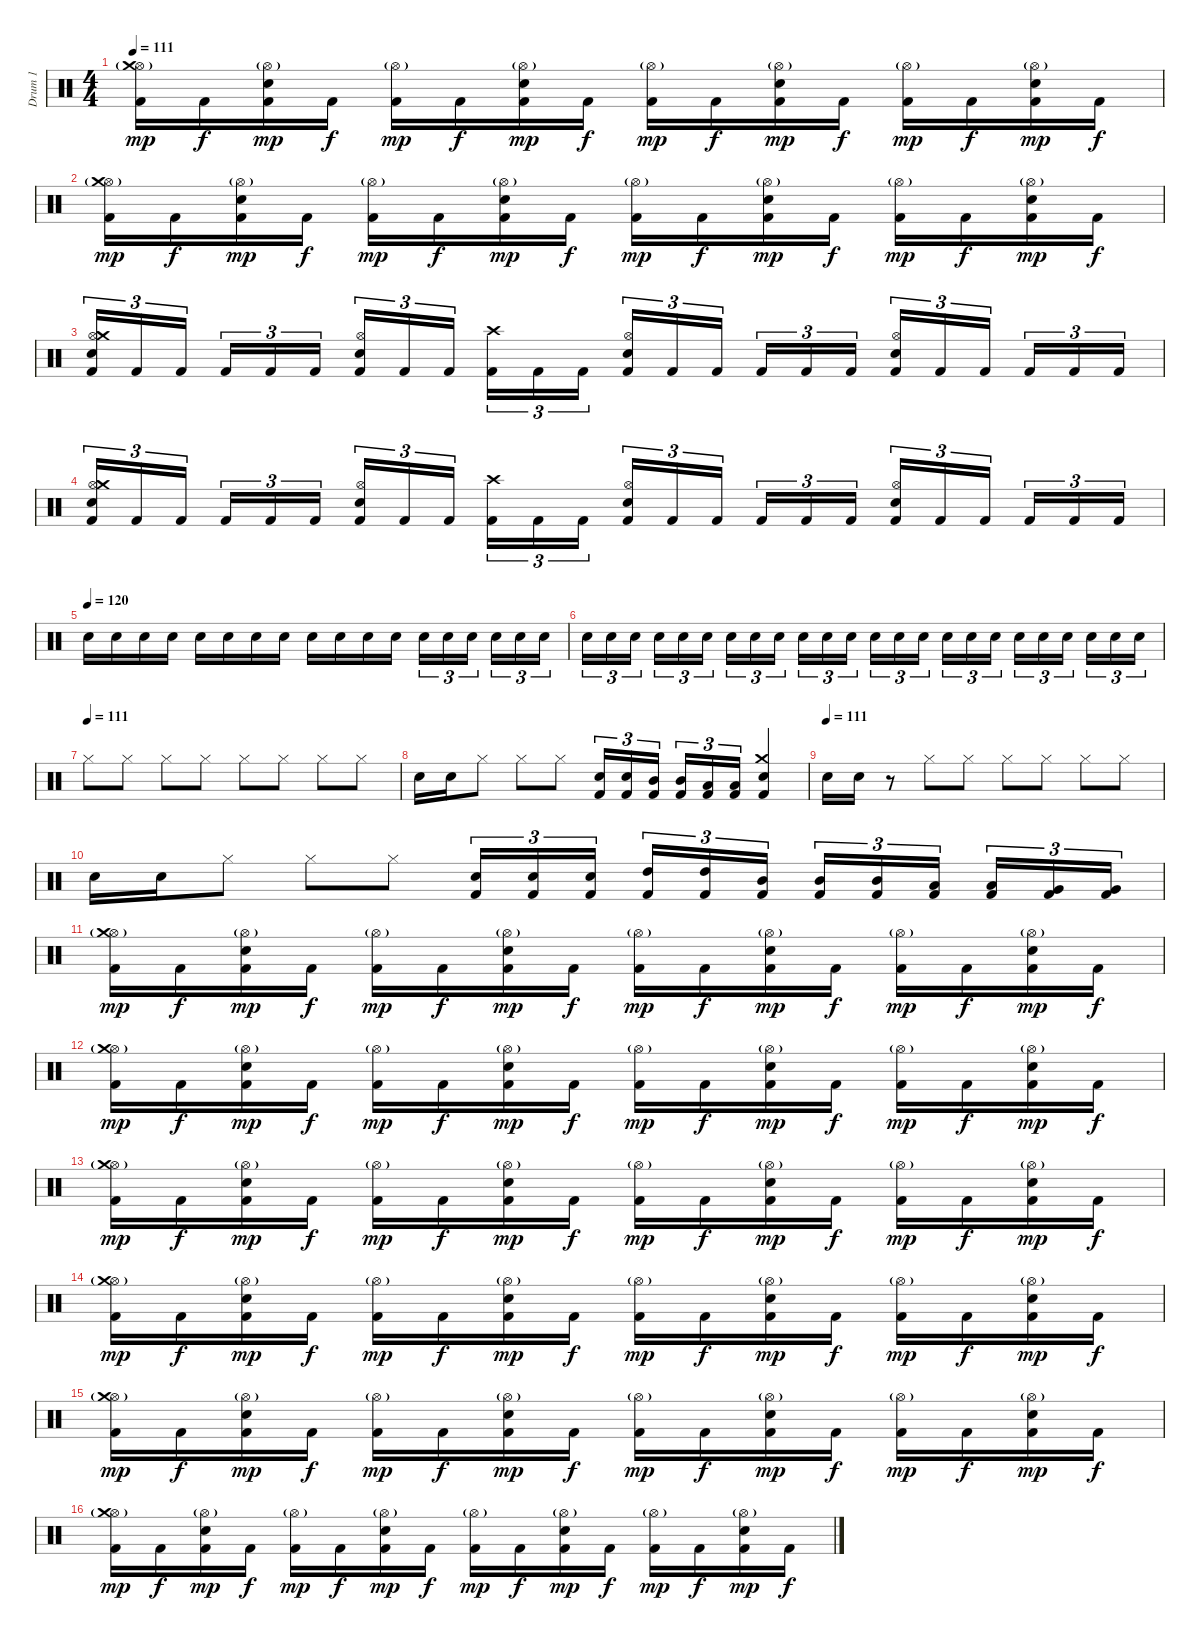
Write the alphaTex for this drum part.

\track ("Drum 1" "Drum 1") {instrument percussion}
\staff {score}
\articulation defaults
\ts (4 4)
\tempo 111
\clef neutral
\ks c
("Kick (hit) 2" "Hi-Hat (open)"{g} "Crash medium (hit)").16{dy mp} "Kick (hit) 2".16{dy f} ("Kick (hit) 2" "Hi-Hat (open)"{g} "Electric Snare (hit)").16{dy mp} "Kick (hit) 2".16{dy f} ("Kick (hit) 2" "Hi-Hat (open)"{g}).16{dy mp} "Kick (hit) 2".16{dy f} ("Kick (hit) 2" "Hi-Hat (open)"{g} "Electric Snare (hit)").16{dy mp} "Kick (hit) 2".16{dy f} ("Kick (hit) 2" "Hi-Hat (open)"{g}).16{dy mp} "Kick (hit) 2".16{dy f} ("Kick (hit) 2" "Hi-Hat (open)"{g} "Electric Snare (hit)").16{dy mp} "Kick (hit) 2".16{dy f} ("Kick (hit) 2" "Hi-Hat (open)"{g}).16{dy mp} "Kick (hit) 2".16{dy f} ("Kick (hit) 2" "Hi-Hat (open)"{g} "Electric Snare (hit)").16{dy mp} "Kick (hit) 2".16{dy f} |
("Kick (hit) 2" "Hi-Hat (open)"{g} "Crash medium (hit)").16{dy mp} "Kick (hit) 2".16{dy f} ("Kick (hit) 2" "Hi-Hat (open)"{g} "Electric Snare (hit)").16{dy mp} "Kick (hit) 2".16{dy f} ("Kick (hit) 2" "Hi-Hat (open)"{g}).16{dy mp} "Kick (hit) 2".16{dy f} ("Kick (hit) 2" "Hi-Hat (open)"{g} "Electric Snare (hit)").16{dy mp} "Kick (hit) 2".16{dy f} ("Kick (hit) 2" "Hi-Hat (open)"{g}).16{dy mp} "Kick (hit) 2".16{dy f} ("Kick (hit) 2" "Hi-Hat (open)"{g} "Electric Snare (hit)").16{dy mp} "Kick (hit) 2".16{dy f} ("Kick (hit) 2" "Hi-Hat (open)"{g}).16{dy mp} "Kick (hit) 2".16{dy f} ("Kick (hit) 2" "Hi-Hat (open)"{g} "Electric Snare (hit)").16{dy mp} "Kick (hit) 2".16{dy f} |
("Kick (hit) 2" "Hi-Hat (open)" "Crash medium (hit)" "Electric Snare (hit)").16{tu (3 2)} "Kick (hit) 2".16{tu (3 2)} "Kick (hit) 2".16{tu (3 2)} "Kick (hit) 2".16{tu (3 2)} "Kick (hit) 2".16{tu (3 2)} "Kick (hit) 2".16{tu (3 2)} ("Kick (hit) 2" "Hi-Hat (open)" "Electric Snare (hit)").16{tu (3 2)} "Kick (hit) 2".16{tu (3 2)} "Kick (hit) 2".16{tu (3 2)} ("Kick (hit) 2" "Crash high (hit)").16{tu (3 2)} "Kick (hit) 2".16{tu (3 2)} "Kick (hit) 2".16{tu (3 2)} ("Kick (hit) 2" "Hi-Hat (open)" "Electric Snare (hit)").16{tu (3 2)} "Kick (hit) 2".16{tu (3 2)} "Kick (hit) 2".16{tu (3 2)} "Kick (hit) 2".16{tu (3 2)} "Kick (hit) 2".16{tu (3 2)} "Kick (hit) 2".16{tu (3 2)} ("Kick (hit) 2" "Hi-Hat (open)" "Electric Snare (hit)").16{tu (3 2)} "Kick (hit) 2".16{tu (3 2)} "Kick (hit) 2".16{tu (3 2)} "Kick (hit) 2".16{tu (3 2)} "Kick (hit) 2".16{tu (3 2)} "Kick (hit) 2".16{tu (3 2)} |
("Kick (hit) 2" "Hi-Hat (open)" "Crash medium (hit)" "Electric Snare (hit)").16{tu (3 2)} "Kick (hit) 2".16{tu (3 2)} "Kick (hit) 2".16{tu (3 2)} "Kick (hit) 2".16{tu (3 2)} "Kick (hit) 2".16{tu (3 2)} "Kick (hit) 2".16{tu (3 2)} ("Kick (hit) 2" "Hi-Hat (open)" "Electric Snare (hit)").16{tu (3 2)} "Kick (hit) 2".16{tu (3 2)} "Kick (hit) 2".16{tu (3 2)} ("Kick (hit) 2" "Crash high (hit)").16{tu (3 2)} "Kick (hit) 2".16{tu (3 2)} "Kick (hit) 2".16{tu (3 2)} ("Kick (hit) 2" "Hi-Hat (open)" "Electric Snare (hit)").16{tu (3 2)} "Kick (hit) 2".16{tu (3 2)} "Kick (hit) 2".16{tu (3 2)} "Kick (hit) 2".16{tu (3 2)} "Kick (hit) 2".16{tu (3 2)} "Kick (hit) 2".16{tu (3 2)} ("Kick (hit) 2" "Hi-Hat (open)" "Electric Snare (hit)").16{tu (3 2)} "Kick (hit) 2".16{tu (3 2)} "Kick (hit) 2".16{tu (3 2)} "Kick (hit) 2".16{tu (3 2)} "Kick (hit) 2".16{tu (3 2)} "Kick (hit) 2".16{tu (3 2)} |
\tempo 125
\tempo (120)
"Electric Snare (hit)".16 "Electric Snare (hit)".16 "Electric Snare (hit)".16 "Electric Snare (hit)".16 "Electric Snare (hit)".16 "Electric Snare (hit)".16 "Electric Snare (hit)".16 "Electric Snare (hit)".16 "Electric Snare (hit)".16 "Electric Snare (hit)".16 "Electric Snare (hit)".16 "Electric Snare (hit)".16 "Electric Snare (hit)".16{tu (3 2)} "Electric Snare (hit)".16{tu (3 2)} "Electric Snare (hit)".16{tu (3 2)} "Electric Snare (hit)".16{tu (3 2)} "Electric Snare (hit)".16{tu (3 2)} "Electric Snare (hit)".16{tu (3 2)} |
"Electric Snare (hit)".16{tu (3 2)} "Electric Snare (hit)".16{tu (3 2)} "Electric Snare (hit)".16{tu (3 2)} "Electric Snare (hit)".16{tu (3 2)} "Electric Snare (hit)".16{tu (3 2)} "Electric Snare (hit)".16{tu (3 2)} "Electric Snare (hit)".16{tu (3 2)} "Electric Snare (hit)".16{tu (3 2)} "Electric Snare (hit)".16{tu (3 2)} "Electric Snare (hit)".16{tu (3 2)} "Electric Snare (hit)".16{tu (3 2)} "Electric Snare (hit)".16{tu (3 2)} "Electric Snare (hit)".16{tu (3 2)} "Electric Snare (hit)".16{tu (3 2)} "Electric Snare (hit)".16{tu (3 2)} "Electric Snare (hit)".16{tu (3 2)} "Electric Snare (hit)".16{tu (3 2)} "Electric Snare (hit)".16{tu (3 2)} "Electric Snare (hit)".16{tu (3 2)} "Electric Snare (hit)".16{tu (3 2)} "Electric Snare (hit)".16{tu (3 2)} "Electric Snare (hit)".16{tu (3 2)} "Electric Snare (hit)".16{tu (3 2)} "Electric Snare (hit)".16{tu (3 2)} |
\tempo (111)
"Hi-Hat (closed)".8 "Hi-Hat (closed)".8 "Hi-Hat (closed)".8 "Hi-Hat (closed)".8 "Hi-Hat (closed)".8 "Hi-Hat (closed)".8 "Hi-Hat (closed)".8 "Hi-Hat (closed)".8 |
"Electric Snare (hit)".16 "Electric Snare (hit)".16 "Hi-Hat (closed)".8 "Hi-Hat (closed)".8 "Hi-Hat (closed)".8 ("Kick (hit) 2" "Electric Snare (hit)").16{tu (3 2)} ("Kick (hit) 2" "Electric Snare (hit)").16{tu (3 2)} ("Kick (hit) 2" "Mid Tom (hit)").16{tu (3 2)} ("Kick (hit) 2" "Mid Tom (hit)").16{tu (3 2)} ("Kick (hit) 2" "Low Tom (hit)").16{tu (3 2)} ("Kick (hit) 2" "Low Tom (hit)").16{tu (3 2)} ("Kick (hit) 2" "Electric Snare (hit)" "Crash medium (hit)").4 |
\tempo (111)
"Electric Snare (hit)".16 "Electric Snare (hit)".16 r.8 "Hi-Hat (closed)".8 "Hi-Hat (closed)".8 "Hi-Hat (closed)".8 "Hi-Hat (closed)".8 "Hi-Hat (closed)".8 "Hi-Hat (closed)".8 |
"Electric Snare (hit)".16 "Electric Snare (hit)".16 "Hi-Hat (closed)".8 "Hi-Hat (closed)".8 "Hi-Hat (closed)".8 ("Kick (hit) 2" "Electric Snare (hit)").16{tu (3 2)} ("Kick (hit) 2" "Electric Snare (hit)").16{tu (3 2)} ("Kick (hit) 2" "Electric Snare (hit)").16{tu (3 2)} ("Kick (hit) 2" "High Tom (hit)").16{tu (3 2)} ("Kick (hit) 2" "High Tom (hit)").16{tu (3 2)} ("Kick (hit) 2" "Mid Tom (hit)").16{tu (3 2)} ("Kick (hit) 2" "Mid Tom (hit)").16{tu (3 2)} ("Kick (hit) 2" "Mid Tom (hit)").16{tu (3 2)} ("Kick (hit) 2" "Low Tom (hit)").16{tu (3 2)} ("Kick (hit) 2" "Low Tom (hit)").16{tu (3 2)} ("Kick (hit) 2" "Very Low Tom (hit)").16{tu (3 2)} ("Kick (hit) 2" "Very Low Tom (hit)").16{tu (3 2)} |
("Kick (hit) 2" "Hi-Hat (open)"{g} "Crash medium (hit)").16{dy mp} "Kick (hit) 2".16{dy f} ("Kick (hit) 2" "Hi-Hat (open)"{g} "Electric Snare (hit)").16{dy mp} "Kick (hit) 2".16{dy f} ("Kick (hit) 2" "Hi-Hat (open)"{g}).16{dy mp} "Kick (hit) 2".16{dy f} ("Kick (hit) 2" "Hi-Hat (open)"{g} "Electric Snare (hit)").16{dy mp} "Kick (hit) 2".16{dy f} ("Kick (hit) 2" "Hi-Hat (open)"{g}).16{dy mp} "Kick (hit) 2".16{dy f} ("Kick (hit) 2" "Hi-Hat (open)"{g} "Electric Snare (hit)").16{dy mp} "Kick (hit) 2".16{dy f} ("Kick (hit) 2" "Hi-Hat (open)"{g}).16{dy mp} "Kick (hit) 2".16{dy f} ("Kick (hit) 2" "Hi-Hat (open)"{g} "Electric Snare (hit)").16{dy mp} "Kick (hit) 2".16{dy f} |
("Kick (hit) 2" "Hi-Hat (open)"{g} "Crash medium (hit)").16{dy mp} "Kick (hit) 2".16{dy f} ("Kick (hit) 2" "Hi-Hat (open)"{g} "Electric Snare (hit)").16{dy mp} "Kick (hit) 2".16{dy f} ("Kick (hit) 2" "Hi-Hat (open)"{g}).16{dy mp} "Kick (hit) 2".16{dy f} ("Kick (hit) 2" "Hi-Hat (open)"{g} "Electric Snare (hit)").16{dy mp} "Kick (hit) 2".16{dy f} ("Kick (hit) 2" "Hi-Hat (open)"{g}).16{dy mp} "Kick (hit) 2".16{dy f} ("Kick (hit) 2" "Hi-Hat (open)"{g} "Electric Snare (hit)").16{dy mp} "Kick (hit) 2".16{dy f} ("Kick (hit) 2" "Hi-Hat (open)"{g}).16{dy mp} "Kick (hit) 2".16{dy f} ("Kick (hit) 2" "Hi-Hat (open)"{g} "Electric Snare (hit)").16{dy mp} "Kick (hit) 2".16{dy f} |
("Kick (hit) 2" "Hi-Hat (open)"{g} "Crash medium (hit)").16{dy mp} "Kick (hit) 2".16{dy f} ("Kick (hit) 2" "Hi-Hat (open)"{g} "Electric Snare (hit)").16{dy mp} "Kick (hit) 2".16{dy f} ("Kick (hit) 2" "Hi-Hat (open)"{g}).16{dy mp} "Kick (hit) 2".16{dy f} ("Kick (hit) 2" "Hi-Hat (open)"{g} "Electric Snare (hit)").16{dy mp} "Kick (hit) 2".16{dy f} ("Kick (hit) 2" "Hi-Hat (open)"{g}).16{dy mp} "Kick (hit) 2".16{dy f} ("Kick (hit) 2" "Hi-Hat (open)"{g} "Electric Snare (hit)").16{dy mp} "Kick (hit) 2".16{dy f} ("Kick (hit) 2" "Hi-Hat (open)"{g}).16{dy mp} "Kick (hit) 2".16{dy f} ("Kick (hit) 2" "Hi-Hat (open)"{g} "Electric Snare (hit)").16{dy mp} "Kick (hit) 2".16{dy f} |
("Kick (hit) 2" "Hi-Hat (open)"{g} "Crash medium (hit)").16{dy mp} "Kick (hit) 2".16{dy f} ("Kick (hit) 2" "Hi-Hat (open)"{g} "Electric Snare (hit)").16{dy mp} "Kick (hit) 2".16{dy f} ("Kick (hit) 2" "Hi-Hat (open)"{g}).16{dy mp} "Kick (hit) 2".16{dy f} ("Kick (hit) 2" "Hi-Hat (open)"{g} "Electric Snare (hit)").16{dy mp} "Kick (hit) 2".16{dy f} ("Kick (hit) 2" "Hi-Hat (open)"{g}).16{dy mp} "Kick (hit) 2".16{dy f} ("Kick (hit) 2" "Hi-Hat (open)"{g} "Electric Snare (hit)").16{dy mp} "Kick (hit) 2".16{dy f} ("Kick (hit) 2" "Hi-Hat (open)"{g}).16{dy mp} "Kick (hit) 2".16{dy f} ("Kick (hit) 2" "Hi-Hat (open)"{g} "Electric Snare (hit)").16{dy mp} "Kick (hit) 2".16{dy f} |
("Kick (hit) 2" "Hi-Hat (open)"{g} "Crash medium (hit)").16{dy mp} "Kick (hit) 2".16{dy f} ("Kick (hit) 2" "Hi-Hat (open)"{g} "Electric Snare (hit)").16{dy mp} "Kick (hit) 2".16{dy f} ("Kick (hit) 2" "Hi-Hat (open)"{g}).16{dy mp} "Kick (hit) 2".16{dy f} ("Kick (hit) 2" "Hi-Hat (open)"{g} "Electric Snare (hit)").16{dy mp} "Kick (hit) 2".16{dy f} ("Kick (hit) 2" "Hi-Hat (open)"{g}).16{dy mp} "Kick (hit) 2".16{dy f} ("Kick (hit) 2" "Hi-Hat (open)"{g} "Electric Snare (hit)").16{dy mp} "Kick (hit) 2".16{dy f} ("Kick (hit) 2" "Hi-Hat (open)"{g}).16{dy mp} "Kick (hit) 2".16{dy f} ("Kick (hit) 2" "Hi-Hat (open)"{g} "Electric Snare (hit)").16{dy mp} "Kick (hit) 2".16{dy f} |
("Kick (hit) 2" "Hi-Hat (open)"{g} "Crash medium (hit)").16{dy mp} "Kick (hit) 2".16{dy f} ("Kick (hit) 2" "Hi-Hat (open)"{g} "Electric Snare (hit)").16{dy mp} "Kick (hit) 2".16{dy f} ("Kick (hit) 2" "Hi-Hat (open)"{g}).16{dy mp} "Kick (hit) 2".16{dy f} ("Kick (hit) 2" "Hi-Hat (open)"{g} "Electric Snare (hit)").16{dy mp} "Kick (hit) 2".16{dy f} ("Kick (hit) 2" "Hi-Hat (open)"{g}).16{dy mp} "Kick (hit) 2".16{dy f} ("Kick (hit) 2" "Hi-Hat (open)"{g} "Electric Snare (hit)").16{dy mp} "Kick (hit) 2".16{dy f} ("Kick (hit) 2" "Hi-Hat (open)"{g}).16{dy mp} "Kick (hit) 2".16{dy f} ("Kick (hit) 2" "Hi-Hat (open)"{g} "Electric Snare (hit)").16{dy mp} "Kick (hit) 2".16{dy f}
